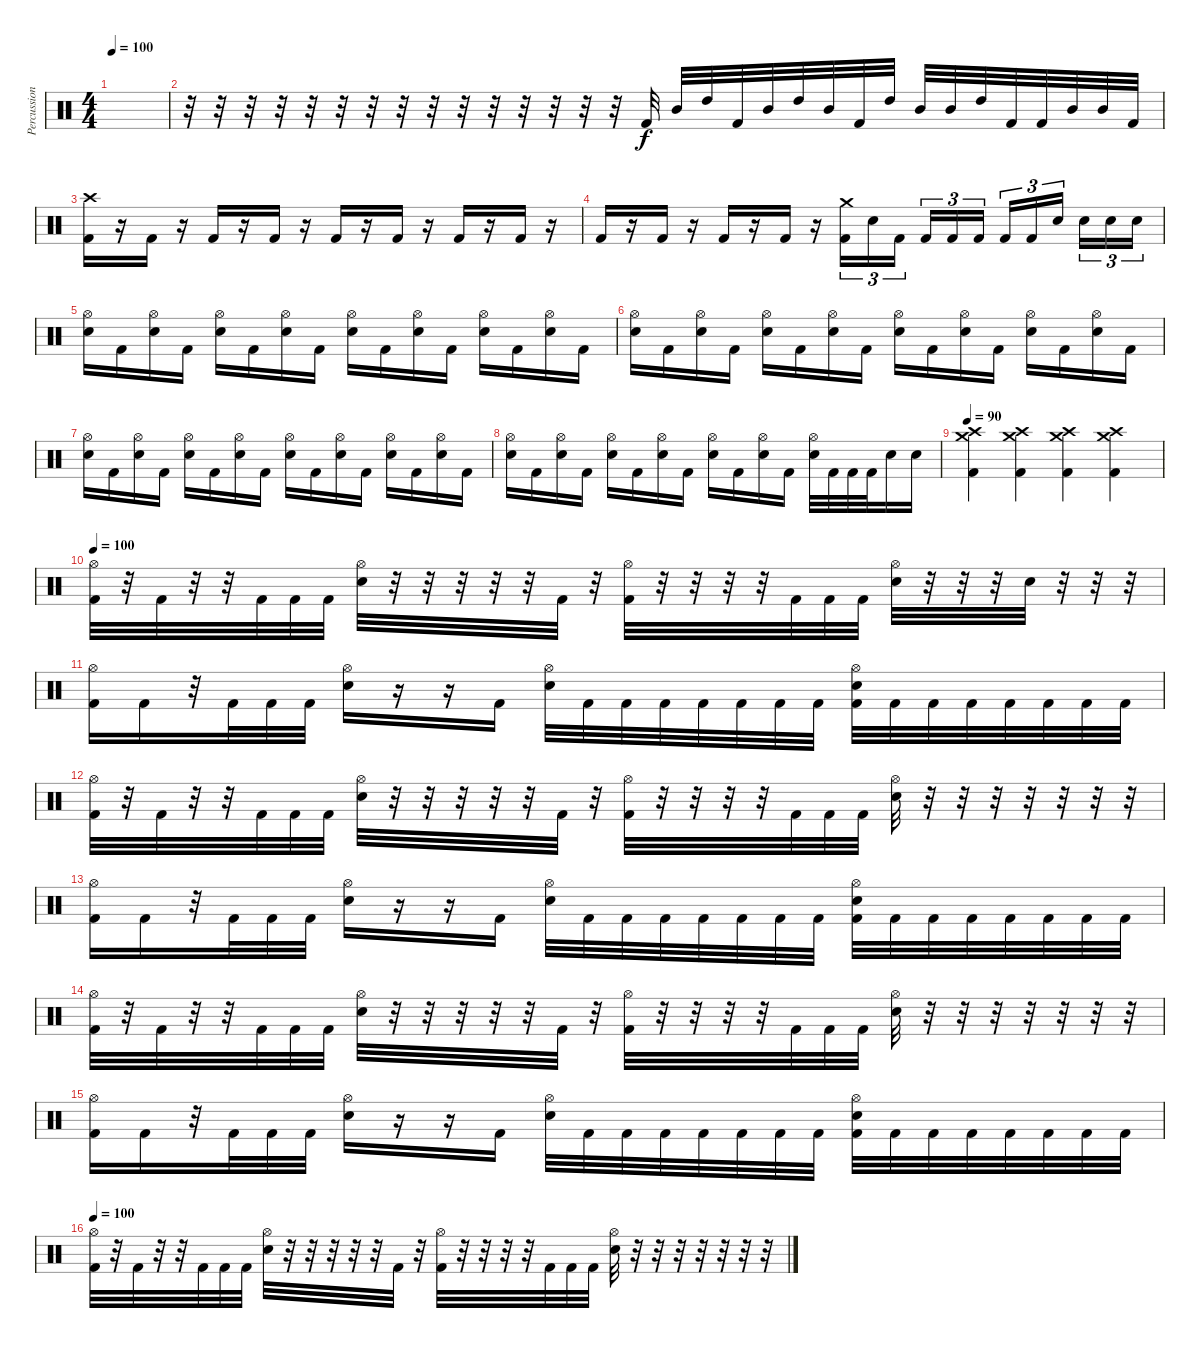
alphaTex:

\track ("Percussions" "Percussion") {instrument percussion}
\staff {score}
\articulation defaults
\ts (4 4)
\tempo 100
\clef neutral
\ks c
|
r.32 r.32 r.32 r.32 r.32 r.32 r.32 r.32 r.32 r.32 r.32 r.32 r.32 r.32 r.32 "Kick (hit) 2".32 "Mid Tom (hit)".32 "High Tom (hit)".32 "Kick (hit) 2".32 "Mid Tom (hit)".32 "High Tom (hit)".32 "Mid Tom (hit)".32 "Kick (hit) 2".32 "High Tom (hit)".32 "Mid Tom (hit)".32 "Mid Tom (hit)".32 "High Tom (hit)".32 "Kick (hit) 2".32 "Kick (hit) 2".32 "Mid Tom (hit)".32 "Mid Tom (hit)".32 "Kick (hit) 2".32 |
("Kick (hit) 2" "Crash high (hit)").16 r.16 "Kick (hit) 2".16 r.16 "Kick (hit) 2".16 r.16 "Kick (hit) 2".16 r.16 "Kick (hit) 2".16 r.16 "Kick (hit) 2".16 r.16 "Kick (hit) 2".16 r.16 "Kick (hit) 2".16 r.16 |
"Kick (hit) 2".16 r.16 "Kick (hit) 2".16 r.16 "Kick (hit) 2".16 r.16 "Kick (hit) 2".16 r.16 ("Kick (hit) 2" "Crash medium (hit)").16{tu (3 2)} "Electric Snare (hit)".16{tu (3 2)} "Kick (hit) 2".16{tu (3 2)} "Kick (hit) 2".16{tu (3 2)} "Kick (hit) 2".16{tu (3 2)} "Kick (hit) 2".16{tu (3 2)} "Kick (hit) 2".16{tu (3 2)} "Kick (hit) 2".16{tu (3 2)} "Electric Snare (hit)".16{tu (3 2)} "Electric Snare (hit)".16{tu (3 2)} "Electric Snare (hit)".16{tu (3 2)} "Electric Snare (hit)".16{tu (3 2)} |
("Electric Snare (hit)" "Hi-Hat (open)").16 "Kick (hit) 2".16 ("Electric Snare (hit)" "Hi-Hat (open)").16 "Kick (hit) 2".16 ("Electric Snare (hit)" "Hi-Hat (open)").16 "Kick (hit) 2".16 ("Electric Snare (hit)" "Hi-Hat (open)").16 "Kick (hit) 2".16 ("Electric Snare (hit)" "Hi-Hat (open)").16 "Kick (hit) 2".16 ("Electric Snare (hit)" "Hi-Hat (open)").16 "Kick (hit) 2".16 ("Electric Snare (hit)" "Hi-Hat (open)").16 "Kick (hit) 2".16 ("Electric Snare (hit)" "Hi-Hat (open)").16 "Kick (hit) 2".16 |
("Electric Snare (hit)" "Hi-Hat (open)").16 "Kick (hit) 2".16 ("Electric Snare (hit)" "Hi-Hat (open)").16 "Kick (hit) 2".16 ("Electric Snare (hit)" "Hi-Hat (open)").16 "Kick (hit) 2".16 ("Electric Snare (hit)" "Hi-Hat (open)").16 "Kick (hit) 2".16 ("Electric Snare (hit)" "Hi-Hat (open)").16 "Kick (hit) 2".16 ("Electric Snare (hit)" "Hi-Hat (open)").16 "Kick (hit) 2".16 ("Electric Snare (hit)" "Hi-Hat (open)").16 "Kick (hit) 2".16 ("Electric Snare (hit)" "Hi-Hat (open)").16 "Kick (hit) 2".16 |
("Electric Snare (hit)" "Hi-Hat (open)").16 "Kick (hit) 2".16 ("Electric Snare (hit)" "Hi-Hat (open)").16 "Kick (hit) 2".16 ("Electric Snare (hit)" "Hi-Hat (open)").16 "Kick (hit) 2".16 ("Electric Snare (hit)" "Hi-Hat (open)").16 "Kick (hit) 2".16 ("Electric Snare (hit)" "Hi-Hat (open)").16 "Kick (hit) 2".16 ("Electric Snare (hit)" "Hi-Hat (open)").16 "Kick (hit) 2".16 ("Electric Snare (hit)" "Hi-Hat (open)").16 "Kick (hit) 2".16 ("Electric Snare (hit)" "Hi-Hat (open)").16 "Kick (hit) 2".16 |
("Electric Snare (hit)" "Hi-Hat (open)").16 "Kick (hit) 2".16 ("Electric Snare (hit)" "Hi-Hat (open)").16 "Kick (hit) 2".16 ("Electric Snare (hit)" "Hi-Hat (open)").16 "Kick (hit) 2".16 ("Electric Snare (hit)" "Hi-Hat (open)").16 "Kick (hit) 2".16 ("Electric Snare (hit)" "Hi-Hat (open)").16 "Kick (hit) 2".16 ("Electric Snare (hit)" "Hi-Hat (open)").16 "Kick (hit) 2".16 ("Electric Snare (hit)" "Hi-Hat (open)").32 "Kick (hit) 2".32 "Kick (hit) 2".32 "Kick (hit) 2".32 "Electric Snare (hit)".16 "Electric Snare (hit)".16 |
\tempo 90
("Kick (hit) 2" "Crash medium (hit)" "Crash high (hit)").4 ("Kick (hit) 2" "Crash medium (hit)" "Crash high (hit)").4 ("Kick (hit) 2" "Crash medium (hit)" "Crash high (hit)").4 ("Kick (hit) 2" "Crash medium (hit)" "Crash high (hit)").4 |
\tempo 100
("Kick (hit) 2" "Hi-Hat (open)").32 r.32 "Kick (hit) 2".32 r.32 r.32 "Kick (hit) 2".32 "Kick (hit) 2".32 "Kick (hit) 2".32 ("Electric Snare (hit)" "Hi-Hat (open)").32 r.32 r.32 r.32 r.32 r.32 "Kick (hit) 2".32 r.32 ("Kick (hit) 2" "Hi-Hat (open)").32 r.32 r.32 r.32 r.32 "Kick (hit) 2".32 "Kick (hit) 2".32 "Kick (hit) 2".32 ("Electric Snare (hit)" "Hi-Hat (open)").32 r.32 r.32 r.32 "Electric Snare (hit)".32 r.32 r.32 r.32 |
("Kick (hit) 2" "Hi-Hat (open)").16 "Kick (hit) 2".16 r.32 "Kick (hit) 2".32 "Kick (hit) 2".32 "Kick (hit) 2".32 ("Electric Snare (hit)" "Hi-Hat (open)").16 r.16 r.16 "Kick (hit) 2".16 ("Electric Snare (hit)" "Hi-Hat (open)").32 "Kick (hit) 2".32 "Kick (hit) 2".32 "Kick (hit) 2".32 "Kick (hit) 2".32 "Kick (hit) 2".32 "Kick (hit) 2".32 "Kick (hit) 2".32 ("Kick (hit) 2" "Electric Snare (hit)" "Hi-Hat (open)").32 "Kick (hit) 2".32 "Kick (hit) 2".32 "Kick (hit) 2".32 "Kick (hit) 2".32 "Kick (hit) 2".32 "Kick (hit) 2".32 "Kick (hit) 2".32 |
("Kick (hit) 2" "Hi-Hat (open)").32 r.32 "Kick (hit) 2".32 r.32 r.32 "Kick (hit) 2".32 "Kick (hit) 2".32 "Kick (hit) 2".32 ("Electric Snare (hit)" "Hi-Hat (open)").32 r.32 r.32 r.32 r.32 r.32 "Kick (hit) 2".32 r.32 ("Kick (hit) 2" "Hi-Hat (open)").32 r.32 r.32 r.32 r.32 "Kick (hit) 2".32 "Kick (hit) 2".32 "Kick (hit) 2".32 ("Electric Snare (hit)" "Hi-Hat (open)").32 r.32 r.32 r.32 r.32 r.32 r.32 r.32 |
("Kick (hit) 2" "Hi-Hat (open)").16 "Kick (hit) 2".16 r.32 "Kick (hit) 2".32 "Kick (hit) 2".32 "Kick (hit) 2".32 ("Electric Snare (hit)" "Hi-Hat (open)").16 r.16 r.16 "Kick (hit) 2".16 ("Electric Snare (hit)" "Hi-Hat (open)").32 "Kick (hit) 2".32 "Kick (hit) 2".32 "Kick (hit) 2".32 "Kick (hit) 2".32 "Kick (hit) 2".32 "Kick (hit) 2".32 "Kick (hit) 2".32 ("Kick (hit) 2" "Electric Snare (hit)" "Hi-Hat (open)").32 "Kick (hit) 2".32 "Kick (hit) 2".32 "Kick (hit) 2".32 "Kick (hit) 2".32 "Kick (hit) 2".32 "Kick (hit) 2".32 "Kick (hit) 2".32 |
("Kick (hit) 2" "Hi-Hat (open)").32 r.32 "Kick (hit) 2".32 r.32 r.32 "Kick (hit) 2".32 "Kick (hit) 2".32 "Kick (hit) 2".32 ("Electric Snare (hit)" "Hi-Hat (open)").32 r.32 r.32 r.32 r.32 r.32 "Kick (hit) 2".32 r.32 ("Kick (hit) 2" "Hi-Hat (open)").32 r.32 r.32 r.32 r.32 "Kick (hit) 2".32 "Kick (hit) 2".32 "Kick (hit) 2".32 ("Electric Snare (hit)" "Hi-Hat (open)").32 r.32 r.32 r.32 r.32 r.32 r.32 r.32 |
("Kick (hit) 2" "Hi-Hat (open)").16 "Kick (hit) 2".16 r.32 "Kick (hit) 2".32 "Kick (hit) 2".32 "Kick (hit) 2".32 ("Electric Snare (hit)" "Hi-Hat (open)").16 r.16 r.16 "Kick (hit) 2".16 ("Electric Snare (hit)" "Hi-Hat (open)").32 "Kick (hit) 2".32 "Kick (hit) 2".32 "Kick (hit) 2".32 "Kick (hit) 2".32 "Kick (hit) 2".32 "Kick (hit) 2".32 "Kick (hit) 2".32 ("Kick (hit) 2" "Electric Snare (hit)" "Hi-Hat (open)").32 "Kick (hit) 2".32 "Kick (hit) 2".32 "Kick (hit) 2".32 "Kick (hit) 2".32 "Kick (hit) 2".32 "Kick (hit) 2".32 "Kick (hit) 2".32 |
\tempo 100
("Kick (hit) 2" "Hi-Hat (open)").32 r.32 "Kick (hit) 2".32 r.32 r.32 "Kick (hit) 2".32 "Kick (hit) 2".32 "Kick (hit) 2".32 ("Electric Snare (hit)" "Hi-Hat (open)").32 r.32 r.32 r.32 r.32 r.32 "Kick (hit) 2".32 r.32 ("Kick (hit) 2" "Hi-Hat (open)").32 r.32 r.32 r.32 r.32 "Kick (hit) 2".32 "Kick (hit) 2".32 "Kick (hit) 2".32 ("Electric Snare (hit)" "Hi-Hat (open)").32 r.32 r.32 r.32 r.32 r.32 r.32 r.32
